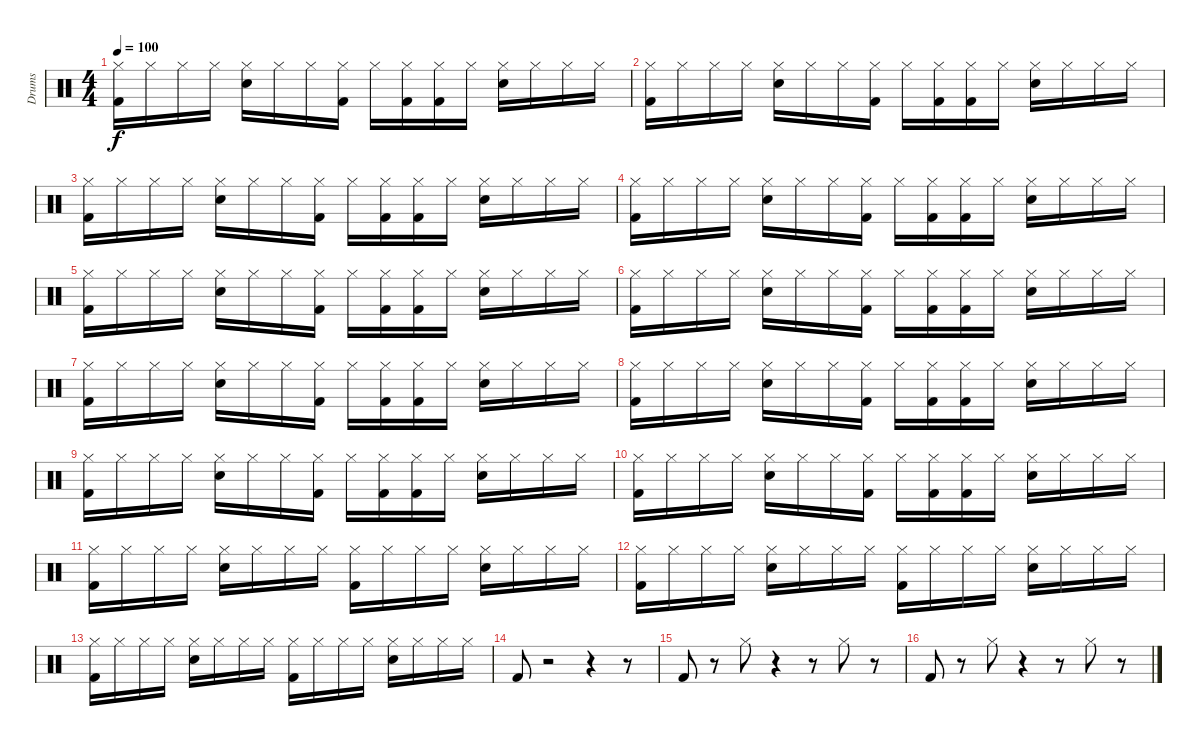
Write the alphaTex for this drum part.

\track ("Drums" "Drums") {instrument percussion}
\staff {score}
\articulation defaults
\ts (4 4)
\tempo 100
\clef neutral
\ks c
("Hi-Hat (closed)" "Kick (hit) 2").16{dy f} "Hi-Hat (closed)".16 "Hi-Hat (closed)".16 "Hi-Hat (closed)".16 ("Hi-Hat (closed)" "Electric Snare (hit)").16 "Hi-Hat (closed)".16 "Hi-Hat (closed)".16 ("Hi-Hat (closed)" "Kick (hit) 2").16 "Hi-Hat (closed)".16 ("Hi-Hat (closed)" "Kick (hit) 2").16 ("Hi-Hat (closed)" "Kick (hit) 2").16 "Hi-Hat (closed)".16 ("Hi-Hat (closed)" "Electric Snare (hit)").16 "Hi-Hat (closed)".16 "Hi-Hat (closed)".16 "Hi-Hat (closed)".16 |
("Hi-Hat (closed)" "Kick (hit) 2").16 "Hi-Hat (closed)".16 "Hi-Hat (closed)".16 "Hi-Hat (closed)".16 ("Hi-Hat (closed)" "Electric Snare (hit)").16 "Hi-Hat (closed)".16 "Hi-Hat (closed)".16 ("Hi-Hat (closed)" "Kick (hit) 2").16 "Hi-Hat (closed)".16 ("Hi-Hat (closed)" "Kick (hit) 2").16 ("Hi-Hat (closed)" "Kick (hit) 2").16 "Hi-Hat (closed)".16 ("Hi-Hat (closed)" "Electric Snare (hit)").16 "Hi-Hat (closed)".16 "Hi-Hat (closed)".16 "Hi-Hat (closed)".16 |
("Hi-Hat (closed)" "Kick (hit) 2").16 "Hi-Hat (closed)".16 "Hi-Hat (closed)".16 "Hi-Hat (closed)".16 ("Hi-Hat (closed)" "Electric Snare (hit)").16 "Hi-Hat (closed)".16 "Hi-Hat (closed)".16 ("Hi-Hat (closed)" "Kick (hit) 2").16 "Hi-Hat (closed)".16 ("Hi-Hat (closed)" "Kick (hit) 2").16 ("Hi-Hat (closed)" "Kick (hit) 2").16 "Hi-Hat (closed)".16 ("Hi-Hat (closed)" "Electric Snare (hit)").16 "Hi-Hat (closed)".16 "Hi-Hat (closed)".16 "Hi-Hat (closed)".16 |
("Hi-Hat (closed)" "Kick (hit) 2").16 "Hi-Hat (closed)".16 "Hi-Hat (closed)".16 "Hi-Hat (closed)".16 ("Hi-Hat (closed)" "Electric Snare (hit)").16 "Hi-Hat (closed)".16 "Hi-Hat (closed)".16 ("Hi-Hat (closed)" "Kick (hit) 2").16 "Hi-Hat (closed)".16 ("Hi-Hat (closed)" "Kick (hit) 2").16 ("Hi-Hat (closed)" "Kick (hit) 2").16 "Hi-Hat (closed)".16 ("Hi-Hat (closed)" "Electric Snare (hit)").16 "Hi-Hat (closed)".16 "Hi-Hat (closed)".16 "Hi-Hat (closed)".16 |
("Hi-Hat (closed)" "Kick (hit) 2").16 "Hi-Hat (closed)".16 "Hi-Hat (closed)".16 "Hi-Hat (closed)".16 ("Hi-Hat (closed)" "Electric Snare (hit)").16 "Hi-Hat (closed)".16 "Hi-Hat (closed)".16 ("Hi-Hat (closed)" "Kick (hit) 2").16 "Hi-Hat (closed)".16 ("Hi-Hat (closed)" "Kick (hit) 2").16 ("Hi-Hat (closed)" "Kick (hit) 2").16 "Hi-Hat (closed)".16 ("Hi-Hat (closed)" "Electric Snare (hit)").16 "Hi-Hat (closed)".16 "Hi-Hat (closed)".16 "Hi-Hat (closed)".16 |
("Hi-Hat (closed)" "Kick (hit) 2").16 "Hi-Hat (closed)".16 "Hi-Hat (closed)".16 "Hi-Hat (closed)".16 ("Hi-Hat (closed)" "Electric Snare (hit)").16 "Hi-Hat (closed)".16 "Hi-Hat (closed)".16 ("Hi-Hat (closed)" "Kick (hit) 2").16 "Hi-Hat (closed)".16 ("Hi-Hat (closed)" "Kick (hit) 2").16 ("Hi-Hat (closed)" "Kick (hit) 2").16 "Hi-Hat (closed)".16 ("Hi-Hat (closed)" "Electric Snare (hit)").16 "Hi-Hat (closed)".16 "Hi-Hat (closed)".16 "Hi-Hat (closed)".16 |
("Hi-Hat (closed)" "Kick (hit) 2").16 "Hi-Hat (closed)".16 "Hi-Hat (closed)".16 "Hi-Hat (closed)".16 ("Hi-Hat (closed)" "Electric Snare (hit)").16 "Hi-Hat (closed)".16 "Hi-Hat (closed)".16 ("Hi-Hat (closed)" "Kick (hit) 2").16 "Hi-Hat (closed)".16 ("Hi-Hat (closed)" "Kick (hit) 2").16 ("Hi-Hat (closed)" "Kick (hit) 2").16 "Hi-Hat (closed)".16 ("Hi-Hat (closed)" "Electric Snare (hit)").16 "Hi-Hat (closed)".16 "Hi-Hat (closed)".16 "Hi-Hat (closed)".16 |
("Hi-Hat (closed)" "Kick (hit) 2").16 "Hi-Hat (closed)".16 "Hi-Hat (closed)".16 "Hi-Hat (closed)".16 ("Hi-Hat (closed)" "Electric Snare (hit)").16 "Hi-Hat (closed)".16 "Hi-Hat (closed)".16 ("Hi-Hat (closed)" "Kick (hit) 2").16 "Hi-Hat (closed)".16 ("Hi-Hat (closed)" "Kick (hit) 2").16 ("Hi-Hat (closed)" "Kick (hit) 2").16 "Hi-Hat (closed)".16 ("Hi-Hat (closed)" "Electric Snare (hit)").16 "Hi-Hat (closed)".16 "Hi-Hat (closed)".16 "Hi-Hat (closed)".16 |
("Hi-Hat (closed)" "Kick (hit) 2").16 "Hi-Hat (closed)".16 "Hi-Hat (closed)".16 "Hi-Hat (closed)".16 ("Hi-Hat (closed)" "Electric Snare (hit)").16 "Hi-Hat (closed)".16 "Hi-Hat (closed)".16 ("Hi-Hat (closed)" "Kick (hit) 2").16 "Hi-Hat (closed)".16 ("Hi-Hat (closed)" "Kick (hit) 2").16 ("Hi-Hat (closed)" "Kick (hit) 2").16 "Hi-Hat (closed)".16 ("Hi-Hat (closed)" "Electric Snare (hit)").16 "Hi-Hat (closed)".16 "Hi-Hat (closed)".16 "Hi-Hat (closed)".16 |
("Hi-Hat (closed)" "Kick (hit) 2").16 "Hi-Hat (closed)".16 "Hi-Hat (closed)".16 "Hi-Hat (closed)".16 ("Hi-Hat (closed)" "Electric Snare (hit)").16 "Hi-Hat (closed)".16 "Hi-Hat (closed)".16 ("Hi-Hat (closed)" "Kick (hit) 2").16 "Hi-Hat (closed)".16 ("Hi-Hat (closed)" "Kick (hit) 2").16 ("Hi-Hat (closed)" "Kick (hit) 2").16 "Hi-Hat (closed)".16 ("Hi-Hat (closed)" "Electric Snare (hit)").16 "Hi-Hat (closed)".16 "Hi-Hat (closed)".16 "Hi-Hat (closed)".16 |
("Hi-Hat (closed)" "Kick (hit) 2").16 "Hi-Hat (closed)".16 "Hi-Hat (closed)".16 "Hi-Hat (closed)".16 ("Hi-Hat (closed)" "Electric Snare (hit)").16 "Hi-Hat (closed)".16 "Hi-Hat (closed)".16 "Hi-Hat (closed)".16 ("Kick (hit) 2" "Hi-Hat (closed)").16 "Hi-Hat (closed)".16 "Hi-Hat (closed)".16 "Hi-Hat (closed)".16 ("Hi-Hat (closed)" "Electric Snare (hit)").16 "Hi-Hat (closed)".16 "Hi-Hat (closed)".16 "Hi-Hat (closed)".16 |
("Hi-Hat (closed)" "Kick (hit) 2").16 "Hi-Hat (closed)".16 "Hi-Hat (closed)".16 "Hi-Hat (closed)".16 ("Hi-Hat (closed)" "Electric Snare (hit)").16 "Hi-Hat (closed)".16 "Hi-Hat (closed)".16 "Hi-Hat (closed)".16 ("Kick (hit) 2" "Hi-Hat (closed)").16 "Hi-Hat (closed)".16 "Hi-Hat (closed)".16 "Hi-Hat (closed)".16 ("Hi-Hat (closed)" "Electric Snare (hit)").16 "Hi-Hat (closed)".16 "Hi-Hat (closed)".16 "Hi-Hat (closed)".16 |
("Hi-Hat (closed)" "Kick (hit) 2").16 "Hi-Hat (closed)".16 "Hi-Hat (closed)".16 "Hi-Hat (closed)".16 ("Hi-Hat (closed)" "Electric Snare (hit)").16 "Hi-Hat (closed)".16 "Hi-Hat (closed)".16 "Hi-Hat (closed)".16 ("Kick (hit) 2" "Hi-Hat (closed)").16 "Hi-Hat (closed)".16 "Hi-Hat (closed)".16 "Hi-Hat (closed)".16 ("Hi-Hat (closed)" "Electric Snare (hit)").16 "Hi-Hat (closed)".16 "Hi-Hat (closed)".16 "Hi-Hat (closed)".16 |
"Kick (hit) 2".8 r.2 r.4 r.8 |
"Kick (hit) 2".8 r.8 "Hi-Hat (closed)".8 r.4 r.8 "Hi-Hat (closed)".8 r.8 |
"Kick (hit) 2".8 r.8 "Hi-Hat (closed)".8 r.4 r.8 "Hi-Hat (closed)".8 r.8
